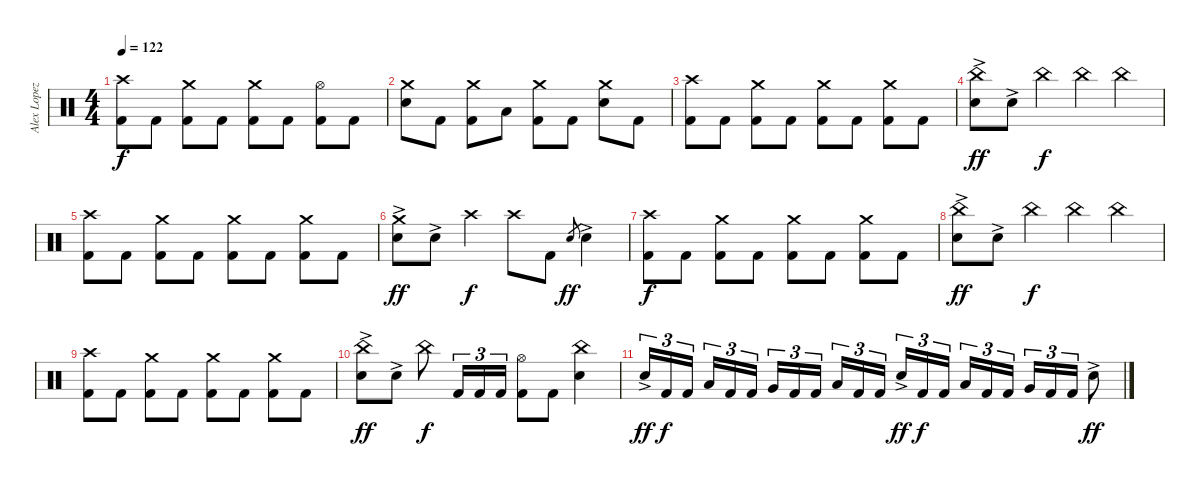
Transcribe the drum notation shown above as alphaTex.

\track ("Alex Lopez" "Alex Lopez") {instrument percussion}
\staff {score}
\articulation defaults
\ts (4 4)
\tempo 122
\clef neutral
\ks c
("Crash high (hit)" "Kick (hit) 2").8{dy f} "Kick (hit) 2".8 ("Crash medium (hit)" "Kick (hit) 2").8 "Kick (hit) 2".8 ("Crash medium (hit)" "Kick (hit) 2").8 "Kick (hit) 2".8 ("Hi-Hat (open)" "Kick (hit) 2").8 "Kick (hit) 2".8 |
("Crash medium (hit)" "Snare (hit) 2").8{balance 0} "Kick (hit) 2".8 ("Crash medium (hit)" "Kick (hit) 2").8 "Low Tom (hit)".8 ("Crash medium (hit)" "Kick (hit) 2").8 "Kick (hit) 2".8 ("Crash medium (hit)" "Snare (hit) 2").8 "Kick (hit) 2".8 |
("Crash high (hit)" "Kick (hit) 2").8{balance 8} "Kick (hit) 2".8 ("Crash medium (hit)" "Kick (hit) 2").8 "Kick (hit) 2".8 ("Crash medium (hit)" "Kick (hit) 2").8 "Kick (hit) 2".8 ("Crash medium (hit)" "Kick (hit) 2").8 "Kick (hit) 2".8 |
("China (hit)" "Electric Snare (hit)"{ac}).8{dy ff} "Electric Snare (hit)"{ac}.8 "China (hit)".4{dy f} "China (hit)".4 "China (hit)".4 |
("Crash high (hit)" "Kick (hit) 2").8 "Kick (hit) 2".8 ("Crash medium (hit)" "Kick (hit) 2").8 "Kick (hit) 2".8 ("Crash medium (hit)" "Kick (hit) 2").8 "Kick (hit) 2".8 ("Crash medium (hit)" "Kick (hit) 2").8 "Kick (hit) 2".8 |
("Crash medium (hit)" "Electric Snare (hit)"{ac}).8{dy ff balance 0} "Electric Snare (hit)"{ac}.8 "Crash high (hit)".4{dy f} "Crash high (hit)".8 "Kick (hit) 2".8 "Electric Snare (hit)".8{gr dy ff} "Electric Snare (hit)"{ac}.4 |
("Crash high (hit)" "Kick (hit) 2").8{dy f balance 8} "Kick (hit) 2".8 ("Crash medium (hit)" "Kick (hit) 2").8 "Kick (hit) 2".8 ("Crash medium (hit)" "Kick (hit) 2").8 "Kick (hit) 2".8 ("Crash medium (hit)" "Kick (hit) 2").8 "Kick (hit) 2".8 |
("China (hit)" "Electric Snare (hit)"{ac}).8{dy ff} "Electric Snare (hit)"{ac}.8 "China (hit)".4{dy f} "China (hit)".4 "China (hit)".4 |
("Crash high (hit)" "Kick (hit) 2").8{balance 8} "Kick (hit) 2".8 ("Crash medium (hit)" "Kick (hit) 2").8 "Kick (hit) 2".8 ("Crash medium (hit)" "Kick (hit) 2").8 "Kick (hit) 2".8 ("Crash medium (hit)" "Kick (hit) 2").8 "Kick (hit) 2".8 |
("China (hit)" "Electric Snare (hit)"{ac}).8{dy ff balance 0} "Electric Snare (hit)"{ac}.8 "China (hit)".8{dy f} "Kick (hit) 2".16{tu (3 2)} "Kick (hit) 2".16{tu (3 2)} "Kick (hit) 2".16{tu (3 2)} ("Hi-Hat (open)" "Kick (hit) 2").8 "Kick (hit) 2".8 ("China (hit)" "Electric Snare (hit)").4 |
"Snare (hit) 2"{ac}.16{tu (3 2) dy ff balance 8} "Kick (hit) 2".16{tu (3 2) dy f} "Kick (hit) 2".16{tu (3 2) beam splitsecondary} "Low Tom (hit)".16{tu (3 2)} "Kick (hit) 2".16{tu (3 2)} "Kick (hit) 2".16{tu (3 2)} "Very Low Tom (hit)".16{tu (3 2)} "Kick (hit) 2".16{tu (3 2)} "Kick (hit) 2".16{tu (3 2) beam splitsecondary} "Low Floor Tom (hit)".16{tu (3 2)} "Kick (hit) 2".16{tu (3 2)} "Kick (hit) 2".16{tu (3 2)} "Snare (hit) 2"{ac}.16{tu (3 2) dy ff balance 8} "Kick (hit) 2".16{tu (3 2) dy f} "Kick (hit) 2".16{tu (3 2) beam splitsecondary} "Low Tom (hit)".16{tu (3 2)} "Kick (hit) 2".16{tu (3 2)} "Kick (hit) 2".16{tu (3 2)} "Very Low Tom (hit)".16{tu (3 2)} "Kick (hit) 2".16{tu (3 2)} "Kick (hit) 2".16{tu (3 2)} "Snare (hit) 2"{ac}.8{dy ff}
